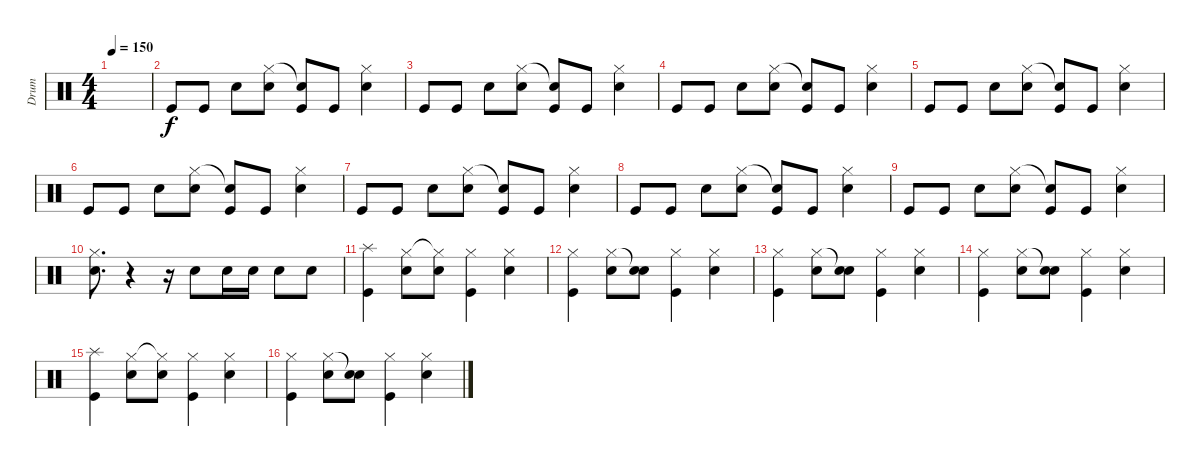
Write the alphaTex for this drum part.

\track ("Drum" "Drum") {instrument percussion}
\staff {score}
\articulation defaults
\ts (4 4)
\tempo 150
\clef neutral
\ks c
|
"Kick (hit)".8 "Kick (hit)".8 "Snare (hit) 2".8 ("Hi-Hat (closed)" "Snare (hit) 2").8 ("Snare (hit)"{t} "Kick (hit)").8 "Kick (hit)".8 ("Hi-Hat (closed)" "Snare (hit) 2").4 |
"Kick (hit)".8 "Kick (hit)".8 "Snare (hit) 2".8 ("Hi-Hat (closed)" "Snare (hit) 2").8 ("Snare (hit)"{t} "Kick (hit)").8 "Kick (hit)".8 ("Hi-Hat (closed)" "Snare (hit) 2").4 |
"Kick (hit)".8 "Kick (hit)".8 "Snare (hit) 2".8 ("Hi-Hat (closed)" "Snare (hit) 2").8 ("Snare (hit)"{t} "Kick (hit)").8 "Kick (hit)".8 ("Hi-Hat (closed)" "Snare (hit) 2").4 |
"Kick (hit)".8 "Kick (hit)".8 "Snare (hit) 2".8 ("Hi-Hat (closed)" "Snare (hit) 2").8 ("Snare (hit)"{t} "Kick (hit)").8 "Kick (hit)".8 ("Hi-Hat (closed)" "Snare (hit) 2").4 |
"Kick (hit)".8 "Kick (hit)".8 "Snare (hit) 2".8 ("Hi-Hat (closed)" "Snare (hit) 2").8 ("Snare (hit)"{t} "Kick (hit)").8 "Kick (hit)".8 ("Hi-Hat (closed)" "Snare (hit) 2").4 |
"Kick (hit)".8 "Kick (hit)".8 "Snare (hit) 2".8 ("Hi-Hat (closed)" "Snare (hit) 2").8 ("Snare (hit)"{t} "Kick (hit)").8 "Kick (hit)".8 ("Hi-Hat (closed)" "Snare (hit) 2").4 |
"Kick (hit)".8 "Kick (hit)".8 "Snare (hit) 2".8 ("Hi-Hat (closed)" "Snare (hit) 2").8 ("Snare (hit)"{t} "Kick (hit)").8 "Kick (hit)".8 ("Hi-Hat (closed)" "Snare (hit) 2").4 |
"Kick (hit)".8 "Kick (hit)".8 "Snare (hit) 2".8 ("Hi-Hat (closed)" "Snare (hit) 2").8 ("Snare (hit)"{t} "Kick (hit)").8 "Kick (hit)".8 ("Hi-Hat (closed)" "Snare (hit) 2").4 |
("Hi-Hat (closed)" "Snare (hit) 2").8{d} r.4 r.16 "Snare (hit) 2".8 "Snare (hit) 2".16 "Snare (hit) 2".16 "Snare (hit) 2".8 "Snare (hit) 2".8 |
("Splash (hit)" "Kick (hit)").4 ("Hi-Hat (closed)" "Snare (hit) 2").8 ("Hi-Hat (closed)"{t} "Snare (hit) 2").8 ("Hi-Hat (closed)" "Kick (hit)").4 ("Hi-Hat (closed)" "Snare (hit) 2").4 |
("Hi-Hat (closed)" "Kick (hit)").4 ("Hi-Hat (closed)" "Snare (hit) 2").8 ("Snare (hit)"{t} "Snare (hit) 2").8 ("Hi-Hat (closed)" "Kick (hit)").4 ("Hi-Hat (closed)" "Snare (hit) 2").4 |
("Hi-Hat (closed)" "Kick (hit)").4 ("Hi-Hat (closed)" "Snare (hit) 2").8 ("Snare (hit)"{t} "Snare (hit) 2").8 ("Hi-Hat (closed)" "Kick (hit)").4 ("Hi-Hat (closed)" "Snare (hit) 2").4 |
("Hi-Hat (closed)" "Kick (hit)").4 ("Hi-Hat (closed)" "Snare (hit) 2").8 ("Snare (hit)"{t} "Snare (hit) 2").8 ("Hi-Hat (closed)" "Kick (hit)").4 ("Hi-Hat (closed)" "Snare (hit) 2").4 |
("Splash (hit)" "Kick (hit)").4 ("Hi-Hat (closed)" "Snare (hit) 2").8 ("Hi-Hat (closed)"{t} "Snare (hit) 2").8 ("Hi-Hat (closed)" "Kick (hit)").4 ("Hi-Hat (closed)" "Snare (hit) 2").4 |
("Hi-Hat (closed)" "Kick (hit)").4 ("Hi-Hat (closed)" "Snare (hit) 2").8 ("Snare (hit)"{t} "Snare (hit) 2").8 ("Hi-Hat (closed)" "Kick (hit)").4 ("Hi-Hat (closed)" "Snare (hit) 2").4
